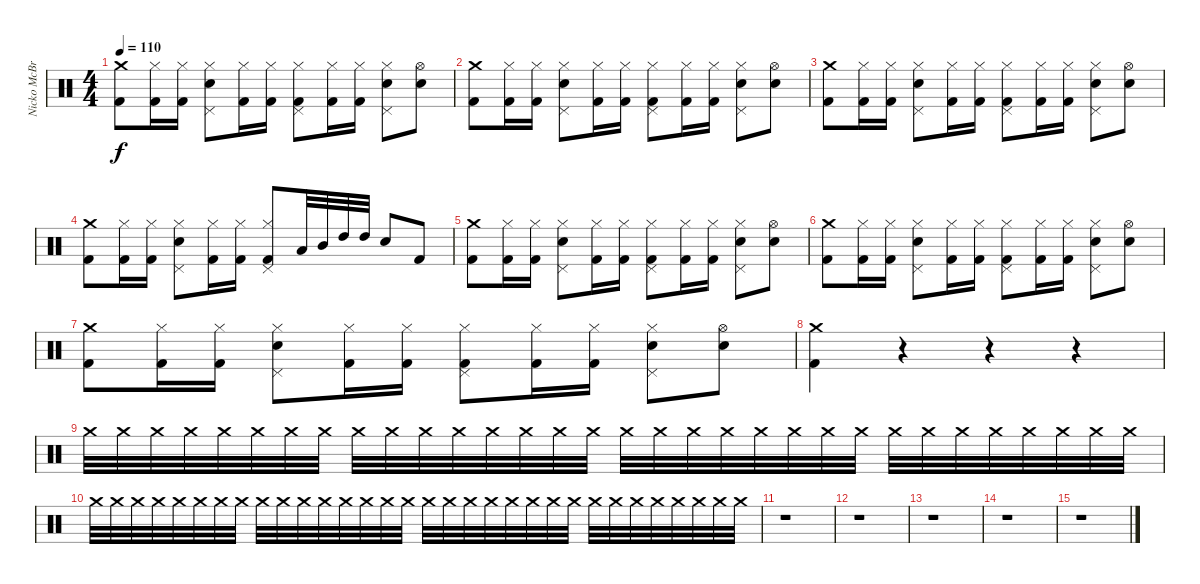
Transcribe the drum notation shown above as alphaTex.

\track ("Nicko McBrain" "Nicko McBr") {instrument percussion}
\staff {score}
\articulation defaults
\ts (4 4)
\tempo 110
\clef neutral
\ks c
("Crash medium (hit)" "Kick (hit) 2").8{dy f} ("Kick (hit) 2" "Hi-Hat (closed)").16 ("Kick (hit) 2" "Hi-Hat (closed)").16 ("Snare (hit) 2" "Pedal Hi-Hat (hit)" "Hi-Hat (closed)").8 ("Kick (hit) 2" "Hi-Hat (closed)").16 ("Kick (hit) 2" "Hi-Hat (closed)").16 ("Kick (hit) 2" "Pedal Hi-Hat (hit)" "Hi-Hat (closed)").8 ("Kick (hit) 2" "Hi-Hat (closed)").16 ("Kick (hit) 2" "Hi-Hat (closed)").16 ("Snare (hit) 2" "Pedal Hi-Hat (hit)" "Hi-Hat (closed)").8 ("Snare (hit) 2" "Hi-Hat (open)").8 |
("Crash medium (hit)" "Kick (hit) 2").8 ("Kick (hit) 2" "Hi-Hat (closed)").16 ("Kick (hit) 2" "Hi-Hat (closed)").16 ("Snare (hit) 2" "Pedal Hi-Hat (hit)" "Hi-Hat (closed)").8 ("Kick (hit) 2" "Hi-Hat (closed)").16 ("Kick (hit) 2" "Hi-Hat (closed)").16 ("Kick (hit) 2" "Pedal Hi-Hat (hit)" "Hi-Hat (closed)").8 ("Kick (hit) 2" "Hi-Hat (closed)").16 ("Kick (hit) 2" "Hi-Hat (closed)").16 ("Snare (hit) 2" "Pedal Hi-Hat (hit)" "Hi-Hat (closed)").8 ("Snare (hit) 2" "Hi-Hat (open)").8 |
("Crash medium (hit)" "Kick (hit) 2").8 ("Kick (hit) 2" "Hi-Hat (closed)").16 ("Kick (hit) 2" "Hi-Hat (closed)").16 ("Snare (hit) 2" "Pedal Hi-Hat (hit)" "Hi-Hat (closed)").8 ("Kick (hit) 2" "Hi-Hat (closed)").16 ("Kick (hit) 2" "Hi-Hat (closed)").16 ("Kick (hit) 2" "Pedal Hi-Hat (hit)" "Hi-Hat (closed)").8 ("Kick (hit) 2" "Hi-Hat (closed)").16 ("Kick (hit) 2" "Hi-Hat (closed)").16 ("Snare (hit) 2" "Pedal Hi-Hat (hit)" "Hi-Hat (closed)").8 ("Snare (hit) 2" "Hi-Hat (open)").8 |
("Crash medium (hit)" "Kick (hit) 2").8 ("Kick (hit) 2" "Hi-Hat (closed)").16 ("Kick (hit) 2" "Hi-Hat (closed)").16 ("Snare (hit) 2" "Pedal Hi-Hat (hit)" "Hi-Hat (closed)").8 ("Kick (hit) 2" "Hi-Hat (closed)").16 ("Kick (hit) 2" "Hi-Hat (closed)").16 ("Kick (hit) 2" "Pedal Hi-Hat (hit)" "Hi-Hat (closed)").8 "Low Tom (hit)".32 "Mid Tom (hit)".32 "High Tom (hit)".32 "High Tom (hit)".32 "Snare (hit) 2".8 "Kick (hit) 2".8 |
("Crash medium (hit)" "Kick (hit) 2").8 ("Kick (hit) 2" "Hi-Hat (closed)").16 ("Kick (hit) 2" "Hi-Hat (closed)").16 ("Snare (hit) 2" "Pedal Hi-Hat (hit)" "Hi-Hat (closed)").8 ("Kick (hit) 2" "Hi-Hat (closed)").16 ("Kick (hit) 2" "Hi-Hat (closed)").16 ("Kick (hit) 2" "Pedal Hi-Hat (hit)" "Hi-Hat (closed)").8 ("Kick (hit) 2" "Hi-Hat (closed)").16 ("Kick (hit) 2" "Hi-Hat (closed)").16 ("Snare (hit) 2" "Pedal Hi-Hat (hit)" "Hi-Hat (closed)").8 ("Snare (hit) 2" "Hi-Hat (open)").8 |
("Crash medium (hit)" "Kick (hit) 2").8 ("Kick (hit) 2" "Hi-Hat (closed)").16 ("Kick (hit) 2" "Hi-Hat (closed)").16 ("Snare (hit) 2" "Pedal Hi-Hat (hit)" "Hi-Hat (closed)").8 ("Kick (hit) 2" "Hi-Hat (closed)").16 ("Kick (hit) 2" "Hi-Hat (closed)").16 ("Kick (hit) 2" "Pedal Hi-Hat (hit)" "Hi-Hat (closed)").8 ("Kick (hit) 2" "Hi-Hat (closed)").16 ("Kick (hit) 2" "Hi-Hat (closed)").16 ("Snare (hit) 2" "Pedal Hi-Hat (hit)" "Hi-Hat (closed)").8 ("Snare (hit) 2" "Hi-Hat (open)").8 |
("Crash medium (hit)" "Kick (hit) 2").8 ("Kick (hit) 2" "Hi-Hat (closed)").16 ("Kick (hit) 2" "Hi-Hat (closed)").16 ("Snare (hit) 2" "Pedal Hi-Hat (hit)" "Hi-Hat (closed)").8 ("Kick (hit) 2" "Hi-Hat (closed)").16 ("Kick (hit) 2" "Hi-Hat (closed)").16 ("Kick (hit) 2" "Pedal Hi-Hat (hit)" "Hi-Hat (closed)").8 ("Kick (hit) 2" "Hi-Hat (closed)").16 ("Kick (hit) 2" "Hi-Hat (closed)").16 ("Snare (hit) 2" "Pedal Hi-Hat (hit)" "Hi-Hat (closed)").8 ("Snare (hit) 2" "Hi-Hat (open)").8 |
("Crash medium (hit)" "Kick (hit) 2").4 r.4 r.4 r.4{volume 0} |
"Crash medium (hit)".32{volume 4 balance 8} "Crash medium (hit)".32 "Crash medium (hit)".32 "Crash medium (hit)".32 "Crash medium (hit)".32 "Crash medium (hit)".32 "Crash medium (hit)".32 "Crash medium (hit)".32 "Crash medium (hit)".32 "Crash medium (hit)".32 "Crash medium (hit)".32 "Crash medium (hit)".32 "Crash medium (hit)".32 "Crash medium (hit)".32 "Crash medium (hit)".32 "Crash medium (hit)".32 "Crash medium (hit)".32 "Crash medium (hit)".32 "Crash medium (hit)".32 "Crash medium (hit)".32 "Crash medium (hit)".32 "Crash medium (hit)".32 "Crash medium (hit)".32 "Crash medium (hit)".32 "Crash medium (hit)".32 "Crash medium (hit)".32 "Crash medium (hit)".32 "Crash medium (hit)".32 "Crash medium (hit)".32 "Crash medium (hit)".32 "Crash medium (hit)".32 "Crash medium (hit)".32 |
"Crash medium (hit)".32 "Crash medium (hit)".32 "Crash medium (hit)".32 "Crash medium (hit)".32 "Crash medium (hit)".32 "Crash medium (hit)".32 "Crash medium (hit)".32 "Crash medium (hit)".32 "Crash medium (hit)".32 "Crash medium (hit)".32 "Crash medium (hit)".32 "Crash medium (hit)".32 "Crash medium (hit)".32 "Crash medium (hit)".32 "Crash medium (hit)".32 "Crash medium (hit)".32 "Crash medium (hit)".32 "Crash medium (hit)".32 "Crash medium (hit)".32 "Crash medium (hit)".32 "Crash medium (hit)".32 "Crash medium (hit)".32 "Crash medium (hit)".32 "Crash medium (hit)".32 "Crash medium (hit)".32 "Crash medium (hit)".32 "Crash medium (hit)".32 "Crash medium (hit)".32 "Crash medium (hit)".32 "Crash medium (hit)".32 "Crash medium (hit)".32 "Crash medium (hit)".32 |
r.1 |
r.1 |
r.1 |
r.1 |
r.1
